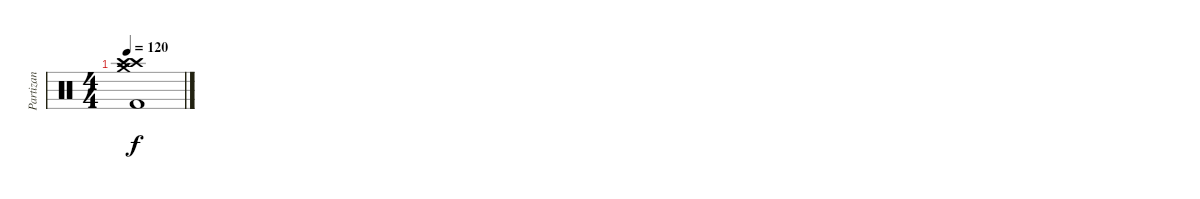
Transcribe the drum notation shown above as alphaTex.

\track ("Partizan" "Partizan") {instrument percussion}
\staff {score}
\articulation defaults
\ts (4 4)
\tempo 120
\clef neutral
\ks c
("Crash high (hit)" "Crash high (hit)" "Crash medium (hit)" "Kick (hit) 2").1{dy f}
